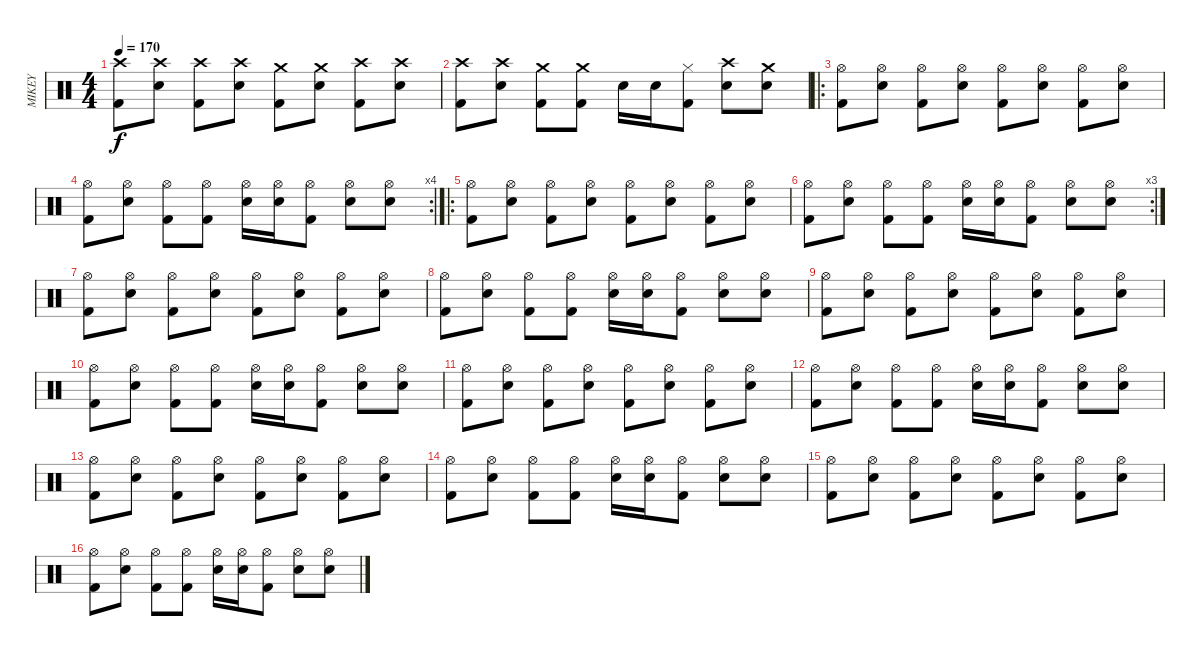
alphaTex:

\track ("MIKEY" "MIKEY") {instrument percussion}
\staff {score}
\articulation defaults
\ts (4 4)
\tempo 170
\clef neutral
\ks c
("Crash high (hit)" "Kick (hit) 2").8{dy f} ("Crash high (hit)" "Electric Snare (hit)").8 ("Crash high (hit)" "Kick (hit) 2").8 ("Crash high (hit)" "Electric Snare (hit)").8 ("Crash medium (hit)" "Kick (hit) 2").8 ("Crash medium (hit)" "Electric Snare (hit)").8 ("Crash high (hit)" "Kick (hit) 2").8 ("Crash high (hit)" "Electric Snare (hit)").8 |
("Crash high (hit)" "Kick (hit) 2").8 ("Crash high (hit)" "Electric Snare (hit)").8 ("Crash medium (hit)" "Kick (hit) 2").8 ("Crash medium (hit)" "Kick (hit) 2").8 "Electric Snare (hit)".16 "Electric Snare (hit)".16 ("Hi-Hat (closed)" "Kick (hit) 2").8 ("Crash high (hit)" "Electric Snare (hit)").8 ("Crash medium (hit)" "Electric Snare (hit)").8 |
\ro
("Hi-Hat (open)" "Kick (hit) 2").8 ("Hi-Hat (open)" "Electric Snare (hit)").8 ("Hi-Hat (open)" "Kick (hit) 2").8 ("Hi-Hat (open)" "Electric Snare (hit)").8 ("Hi-Hat (open)" "Kick (hit) 2").8 ("Hi-Hat (open)" "Electric Snare (hit)").8 ("Hi-Hat (open)" "Kick (hit) 2").8 ("Hi-Hat (open)" "Electric Snare (hit)").8 |
\rc 4
("Hi-Hat (open)" "Kick (hit) 2").8 ("Hi-Hat (open)" "Electric Snare (hit)").8 ("Hi-Hat (open)" "Kick (hit) 2").8 ("Hi-Hat (open)" "Kick (hit) 2").8 ("Hi-Hat (open)" "Electric Snare (hit)").16 ("Hi-Hat (open)" "Electric Snare (hit)").16 ("Hi-Hat (open)" "Kick (hit) 2").8 ("Hi-Hat (open)" "Electric Snare (hit)").8 ("Hi-Hat (open)" "Electric Snare (hit)").8 |
\ro
("Hi-Hat (open)" "Kick (hit) 2").8 ("Hi-Hat (open)" "Electric Snare (hit)").8 ("Hi-Hat (open)" "Kick (hit) 2").8 ("Hi-Hat (open)" "Electric Snare (hit)").8 ("Hi-Hat (open)" "Kick (hit) 2").8 ("Hi-Hat (open)" "Electric Snare (hit)").8 ("Hi-Hat (open)" "Kick (hit) 2").8 ("Hi-Hat (open)" "Electric Snare (hit)").8 |
\rc 3
("Hi-Hat (open)" "Kick (hit) 2").8 ("Hi-Hat (open)" "Electric Snare (hit)").8 ("Hi-Hat (open)" "Kick (hit) 2").8 ("Hi-Hat (open)" "Kick (hit) 2").8 ("Hi-Hat (open)" "Electric Snare (hit)").16 ("Hi-Hat (open)" "Electric Snare (hit)").16 ("Hi-Hat (open)" "Kick (hit) 2").8 ("Hi-Hat (open)" "Electric Snare (hit)").8 ("Hi-Hat (open)" "Electric Snare (hit)").8 |
("Hi-Hat (open)" "Kick (hit) 2").8 ("Hi-Hat (open)" "Electric Snare (hit)").8 ("Hi-Hat (open)" "Kick (hit) 2").8 ("Hi-Hat (open)" "Electric Snare (hit)").8 ("Hi-Hat (open)" "Kick (hit) 2").8 ("Hi-Hat (open)" "Electric Snare (hit)").8 ("Hi-Hat (open)" "Kick (hit) 2").8 ("Hi-Hat (open)" "Electric Snare (hit)").8 |
("Hi-Hat (open)" "Kick (hit) 2").8 ("Hi-Hat (open)" "Electric Snare (hit)").8 ("Hi-Hat (open)" "Kick (hit) 2").8 ("Hi-Hat (open)" "Kick (hit) 2").8 ("Hi-Hat (open)" "Electric Snare (hit)").16 ("Hi-Hat (open)" "Electric Snare (hit)").16 ("Hi-Hat (open)" "Kick (hit) 2").8 ("Hi-Hat (open)" "Electric Snare (hit)").8 ("Hi-Hat (open)" "Electric Snare (hit)").8 |
("Hi-Hat (open)" "Kick (hit) 2").8 ("Hi-Hat (open)" "Electric Snare (hit)").8 ("Hi-Hat (open)" "Kick (hit) 2").8 ("Hi-Hat (open)" "Electric Snare (hit)").8 ("Hi-Hat (open)" "Kick (hit) 2").8 ("Hi-Hat (open)" "Electric Snare (hit)").8 ("Hi-Hat (open)" "Kick (hit) 2").8 ("Hi-Hat (open)" "Electric Snare (hit)").8 |
("Hi-Hat (open)" "Kick (hit) 2").8 ("Hi-Hat (open)" "Electric Snare (hit)").8 ("Hi-Hat (open)" "Kick (hit) 2").8 ("Hi-Hat (open)" "Kick (hit) 2").8 ("Hi-Hat (open)" "Electric Snare (hit)").16 ("Hi-Hat (open)" "Electric Snare (hit)").16 ("Hi-Hat (open)" "Kick (hit) 2").8 ("Hi-Hat (open)" "Electric Snare (hit)").8 ("Hi-Hat (open)" "Electric Snare (hit)").8 |
("Hi-Hat (open)" "Kick (hit) 2").8 ("Hi-Hat (open)" "Electric Snare (hit)").8 ("Hi-Hat (open)" "Kick (hit) 2").8 ("Hi-Hat (open)" "Electric Snare (hit)").8 ("Hi-Hat (open)" "Kick (hit) 2").8 ("Hi-Hat (open)" "Electric Snare (hit)").8 ("Hi-Hat (open)" "Kick (hit) 2").8 ("Hi-Hat (open)" "Electric Snare (hit)").8 |
("Hi-Hat (open)" "Kick (hit) 2").8 ("Hi-Hat (open)" "Electric Snare (hit)").8 ("Hi-Hat (open)" "Kick (hit) 2").8 ("Hi-Hat (open)" "Kick (hit) 2").8 ("Hi-Hat (open)" "Electric Snare (hit)").16 ("Hi-Hat (open)" "Electric Snare (hit)").16 ("Hi-Hat (open)" "Kick (hit) 2").8 ("Hi-Hat (open)" "Electric Snare (hit)").8 ("Hi-Hat (open)" "Electric Snare (hit)").8 |
("Hi-Hat (open)" "Kick (hit) 2").8 ("Hi-Hat (open)" "Electric Snare (hit)").8 ("Hi-Hat (open)" "Kick (hit) 2").8 ("Hi-Hat (open)" "Electric Snare (hit)").8 ("Hi-Hat (open)" "Kick (hit) 2").8 ("Hi-Hat (open)" "Electric Snare (hit)").8 ("Hi-Hat (open)" "Kick (hit) 2").8 ("Hi-Hat (open)" "Electric Snare (hit)").8 |
("Hi-Hat (open)" "Kick (hit) 2").8 ("Hi-Hat (open)" "Electric Snare (hit)").8 ("Hi-Hat (open)" "Kick (hit) 2").8 ("Hi-Hat (open)" "Kick (hit) 2").8 ("Hi-Hat (open)" "Electric Snare (hit)").16 ("Hi-Hat (open)" "Electric Snare (hit)").16 ("Hi-Hat (open)" "Kick (hit) 2").8 ("Hi-Hat (open)" "Electric Snare (hit)").8 ("Hi-Hat (open)" "Electric Snare (hit)").8 |
("Hi-Hat (open)" "Kick (hit) 2").8 ("Hi-Hat (open)" "Electric Snare (hit)").8 ("Hi-Hat (open)" "Kick (hit) 2").8 ("Hi-Hat (open)" "Electric Snare (hit)").8 ("Hi-Hat (open)" "Kick (hit) 2").8 ("Hi-Hat (open)" "Electric Snare (hit)").8 ("Hi-Hat (open)" "Kick (hit) 2").8 ("Hi-Hat (open)" "Electric Snare (hit)").8 |
("Hi-Hat (open)" "Kick (hit) 2").8 ("Hi-Hat (open)" "Electric Snare (hit)").8 ("Hi-Hat (open)" "Kick (hit) 2").8 ("Hi-Hat (open)" "Kick (hit) 2").8 ("Hi-Hat (open)" "Electric Snare (hit)").16 ("Hi-Hat (open)" "Electric Snare (hit)").16 ("Hi-Hat (open)" "Kick (hit) 2").8 ("Hi-Hat (open)" "Electric Snare (hit)").8 ("Hi-Hat (open)" "Electric Snare (hit)").8
